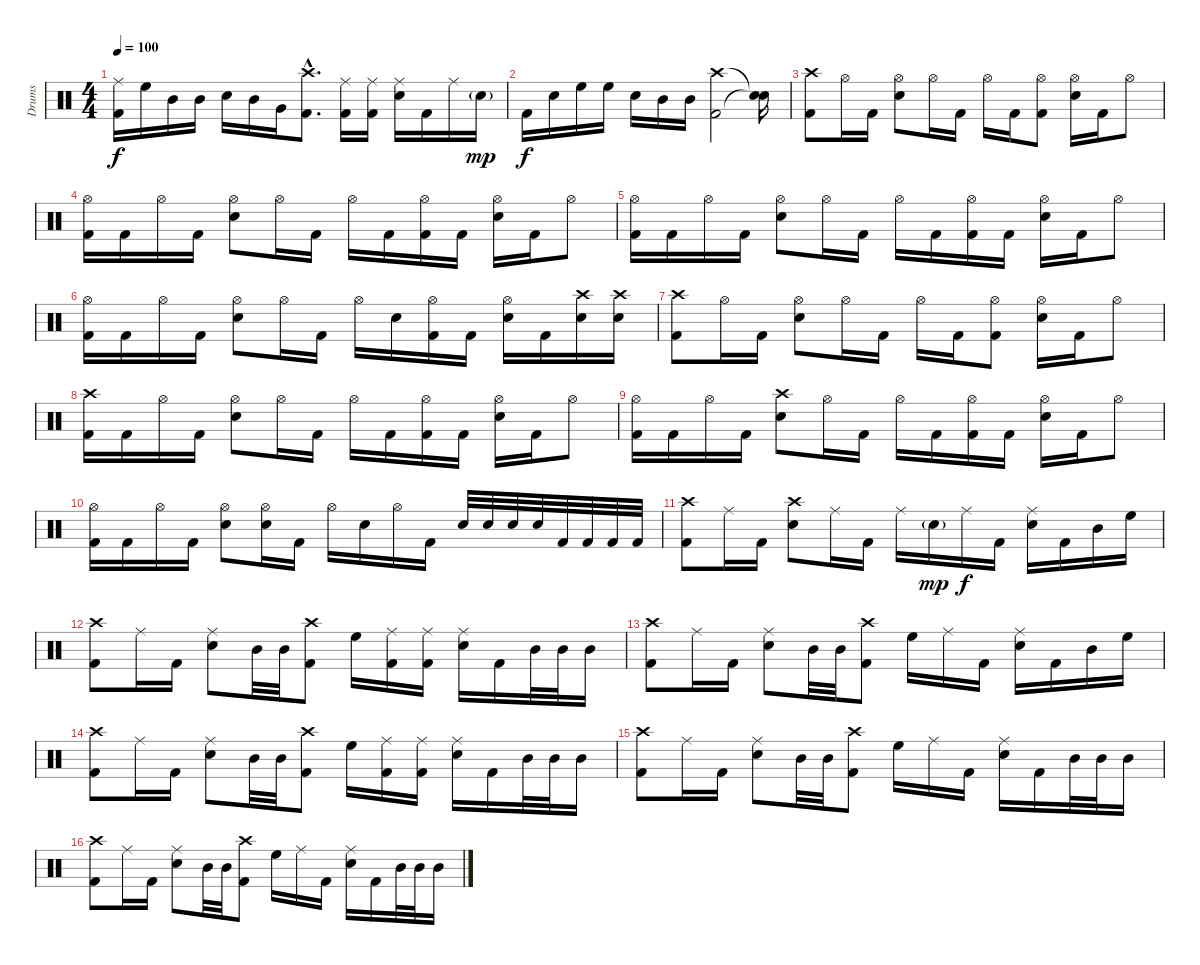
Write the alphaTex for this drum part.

\track ("Drums" "Drums") {instrument percussion}
\staff {score}
\articulation defaults
\ts (4 4)
\tempo 100
\clef neutral
\ks c
("Ride (middle)" "Kick (hit) 2").16{dy f} "High Floor Tom (hit)".16 "Mid Tom (hit)".16 "Mid Tom (hit)".16 "Snare (hit) 2".16 "Mid Tom (hit)".16 "Very Low Tom (hit)".16 ("Crash high (hit)"{hac} "Kick (hit) 2"{hac}).8{d} ("Ride (middle)" "Kick (hit) 2").16 ("Ride (middle)" "Kick (hit) 2").16 ("Ride (middle)" "Snare (hit) 2").16 "Kick (hit) 2".16 "Ride (middle)".16 "Snare (hit) 2"{g}.16{dy mp} |
"Kick (hit) 2".16{dy f} "Snare (hit) 2".16 "High Floor Tom (hit)".16 "High Floor Tom (hit)".16 "Snare (hit) 2".16 "Mid Tom (hit)".16 "Mid Tom (hit)".16 ("Crash high (hit)" "Kick (hit) 2").2 ("Snare (hit)"{t} "Snare (hit)"{t}).16 |
("Crash high (hit)" "Kick (hit) 2").8 "Hi-Hat (open)".16 "Kick (hit) 2".16 ("Hi-Hat (open)" "Snare (hit) 2").8 "Hi-Hat (open)".16 "Kick (hit) 2".16 "Hi-Hat (open)".16 "Kick (hit) 2".16 ("Hi-Hat (open)" "Kick (hit) 2").8 ("Hi-Hat (open)" "Snare (hit) 2").16 "Kick (hit) 2".16 "Hi-Hat (open)".8 |
("Hi-Hat (open)" "Kick (hit) 2").16 "Kick (hit) 2".16 "Hi-Hat (open)".16 "Kick (hit) 2".16 ("Hi-Hat (open)" "Snare (hit) 2").8 "Hi-Hat (open)".16 "Kick (hit) 2".16 "Hi-Hat (open)".16 "Kick (hit) 2".16 ("Hi-Hat (open)" "Kick (hit) 2").16 "Kick (hit) 2".16 ("Hi-Hat (open)" "Snare (hit) 2").16 "Kick (hit) 2".16 "Hi-Hat (open)".8 |
("Hi-Hat (open)" "Kick (hit) 2").16 "Kick (hit) 2".16 "Hi-Hat (open)".16 "Kick (hit) 2".16 ("Hi-Hat (open)" "Snare (hit) 2").8 "Hi-Hat (open)".16 "Kick (hit) 2".16 "Hi-Hat (open)".16 "Kick (hit) 2".16 ("Hi-Hat (open)" "Kick (hit) 2").16 "Kick (hit) 2".16 ("Hi-Hat (open)" "Snare (hit) 2").16 "Kick (hit) 2".16 "Hi-Hat (open)".8 |
("Hi-Hat (open)" "Kick (hit) 2").16 "Kick (hit) 2".16 "Hi-Hat (open)".16 "Kick (hit) 2".16 ("Hi-Hat (open)" "Snare (hit) 2").8 "Hi-Hat (open)".16 "Kick (hit) 2".16 "Hi-Hat (open)".16 "Snare (hit) 2".16 ("Hi-Hat (open)" "Kick (hit) 2").16 "Kick (hit) 2".16 ("Hi-Hat (open)" "Snare (hit) 2").16 "Kick (hit) 2".16 ("Crash high (hit)" "Snare (hit) 2").16 ("Crash high (hit)" "Snare (hit) 2").16 |
("Crash high (hit)" "Kick (hit) 2").8 "Hi-Hat (open)".16 "Kick (hit) 2".16 ("Hi-Hat (open)" "Snare (hit) 2").8 "Hi-Hat (open)".16 "Kick (hit) 2".16 "Hi-Hat (open)".16 "Kick (hit) 2".16 ("Hi-Hat (open)" "Kick (hit) 2").8 ("Hi-Hat (open)" "Snare (hit) 2").16 "Kick (hit) 2".16 "Hi-Hat (open)".8 |
("Crash high (hit)" "Kick (hit) 2").16 "Kick (hit) 2".16 "Hi-Hat (open)".16 "Kick (hit) 2".16 ("Hi-Hat (open)" "Snare (hit) 2").8 "Hi-Hat (open)".16 "Kick (hit) 2".16 "Hi-Hat (open)".16 "Kick (hit) 2".16 ("Hi-Hat (open)" "Kick (hit) 2").16 "Kick (hit) 2".16 ("Hi-Hat (open)" "Snare (hit) 2").16 "Kick (hit) 2".16 "Hi-Hat (open)".8 |
("Hi-Hat (open)" "Kick (hit) 2").16 "Kick (hit) 2".16 "Hi-Hat (open)".16 "Kick (hit) 2".16 ("Crash high (hit)" "Snare (hit) 2").8 "Hi-Hat (open)".16 "Kick (hit) 2".16 "Hi-Hat (open)".16 "Kick (hit) 2".16 ("Hi-Hat (open)" "Kick (hit) 2").16 "Kick (hit) 2".16 ("Hi-Hat (open)" "Snare (hit) 2").16 "Kick (hit) 2".16 "Hi-Hat (open)".8 |
("Hi-Hat (open)" "Kick (hit) 2").16 "Kick (hit) 2".16 "Hi-Hat (open)".16 "Kick (hit) 2".16 ("Hi-Hat (open)" "Snare (hit) 2").8 ("Hi-Hat (open)" "Snare (hit) 2").16 "Kick (hit) 2".16 "Hi-Hat (open)".16 "Snare (hit) 2".16 "Hi-Hat (open)".16 "Kick (hit) 2".16 "Snare (hit) 2".32 "Snare (hit) 2".32 "Snare (hit) 2".32 "Snare (hit) 2".32 "Kick (hit) 2".32 "Kick (hit) 2".32 "Kick (hit) 2".32 "Kick (hit) 2".32 |
("Crash high (hit)" "Kick (hit) 2").8 "Ride (middle)".16 "Kick (hit) 2".16 ("Crash high (hit)" "Snare (hit) 2").8 "Ride (middle)".16 "Kick (hit) 2".16 "Ride (middle)".16 "Snare (hit) 2"{g}.16{dy mp} "Ride (middle)".16{dy f} "Kick (hit) 2".16 ("Ride (middle)" "Snare (hit) 2").16 "Kick (hit) 2".16 "Mid Tom (hit)".16 "High Floor Tom (hit)".16 |
("Crash high (hit)" "Kick (hit) 2").8 "Ride (middle)".16 "Kick (hit) 2".16 ("Ride (middle)" "Snare (hit) 2").8 "Mid Tom (hit)".32 "Mid Tom (hit)".32 ("Crash high (hit)" "Kick (hit) 2").8 "High Floor Tom (hit)".16 ("Ride (middle)" "Kick (hit) 2").16 ("Ride (middle)" "Kick (hit) 2").16 ("Ride (middle)" "Snare (hit) 2").16 "Kick (hit) 2".16 "Mid Tom (hit)".32 "Mid Tom (hit)".32 "Mid Tom (hit)".16 |
("Crash high (hit)" "Kick (hit) 2").8 "Ride (middle)".16 "Kick (hit) 2".16 ("Ride (middle)" "Snare (hit) 2").8 "Mid Tom (hit)".32 "Mid Tom (hit)".32 ("Crash high (hit)" "Kick (hit) 2").8 "High Floor Tom (hit)".16 "Ride (middle)".16 "Kick (hit) 2".16 ("Ride (middle)" "Snare (hit) 2").16 "Kick (hit) 2".16 "Mid Tom (hit)".16 "High Floor Tom (hit)".16 |
("Crash high (hit)" "Kick (hit) 2").8 "Ride (middle)".16 "Kick (hit) 2".16 ("Ride (middle)" "Snare (hit) 2").8 "Mid Tom (hit)".32 "Mid Tom (hit)".32 ("Crash high (hit)" "Kick (hit) 2").8 "High Floor Tom (hit)".16 ("Ride (middle)" "Kick (hit) 2").16 ("Ride (middle)" "Kick (hit) 2").16 ("Ride (middle)" "Snare (hit) 2").16 "Kick (hit) 2".16 "Mid Tom (hit)".32 "Mid Tom (hit)".32 "Mid Tom (hit)".16 |
("Crash high (hit)" "Kick (hit) 2").8 "Ride (middle)".16 "Kick (hit) 2".16 ("Ride (middle)" "Snare (hit) 2").8 "Mid Tom (hit)".32 "Mid Tom (hit)".32 ("Crash high (hit)" "Kick (hit) 2").8 "High Floor Tom (hit)".16 "Ride (middle)".16 "Kick (hit) 2".16 ("Ride (middle)" "Snare (hit) 2").16 "Kick (hit) 2".16 "Mid Tom (hit)".32 "Mid Tom (hit)".32 "Mid Tom (hit)".16 |
("Crash high (hit)" "Kick (hit) 2").8 "Ride (middle)".16 "Kick (hit) 2".16 ("Ride (middle)" "Snare (hit) 2").8 "Mid Tom (hit)".32 "Mid Tom (hit)".32 ("Crash high (hit)" "Kick (hit) 2").8 "High Floor Tom (hit)".16 "Ride (middle)".16 "Kick (hit) 2".16 ("Ride (middle)" "Snare (hit) 2").16 "Kick (hit) 2".16 "Mid Tom (hit)".32 "Mid Tom (hit)".32 "Mid Tom (hit)".16
